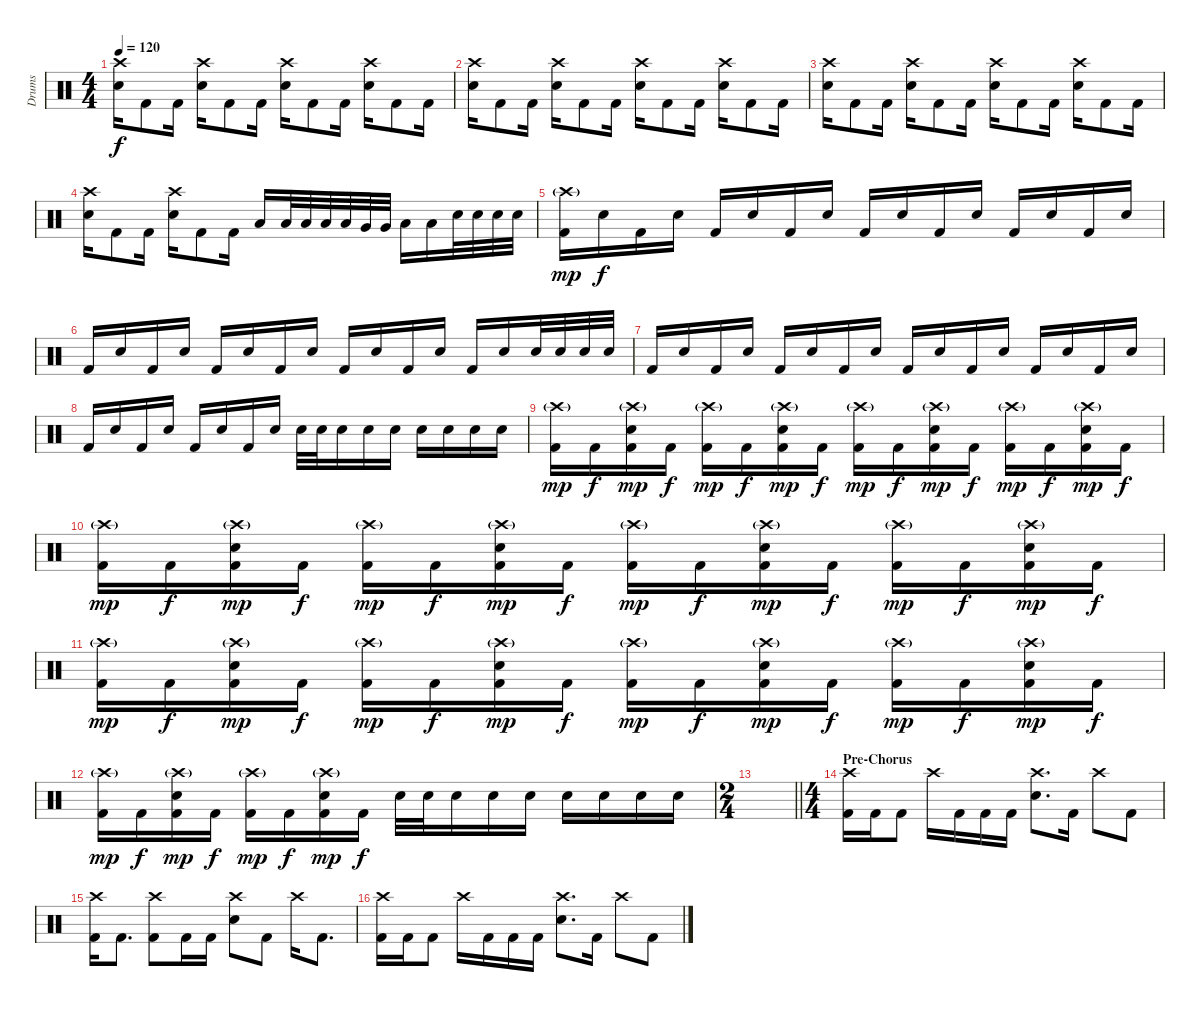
\track ("Drums" "Drums") {instrument percussion}
\staff {score}
\articulation defaults
\ts (4 4)
\tempo 120
\clef neutral
\ks c
("Crash high (hit)" "Electric Snare (hit)").16{dy f} "Kick (hit) 2".8 "Kick (hit) 2".16 ("Crash high (hit)" "Electric Snare (hit)").16 "Kick (hit) 2".8 "Kick (hit) 2".16 ("Crash high (hit)" "Electric Snare (hit)").16 "Kick (hit) 2".8 "Kick (hit) 2".16 ("Crash high (hit)" "Electric Snare (hit)").16 "Kick (hit) 2".8 "Kick (hit) 2".16 |
("Crash high (hit)" "Electric Snare (hit)").16 "Kick (hit) 2".8 "Kick (hit) 2".16 ("Crash high (hit)" "Electric Snare (hit)").16 "Kick (hit) 2".8 "Kick (hit) 2".16 ("Crash high (hit)" "Electric Snare (hit)").16 "Kick (hit) 2".8 "Kick (hit) 2".16 ("Crash high (hit)" "Electric Snare (hit)").16 "Kick (hit) 2".8 "Kick (hit) 2".16 |
("Crash high (hit)" "Electric Snare (hit)").16 "Kick (hit) 2".8 "Kick (hit) 2".16 ("Crash high (hit)" "Electric Snare (hit)").16 "Kick (hit) 2".8 "Kick (hit) 2".16 ("Crash high (hit)" "Electric Snare (hit)").16 "Kick (hit) 2".8 "Kick (hit) 2".16 ("Crash high (hit)" "Electric Snare (hit)").16 "Kick (hit) 2".8 "Kick (hit) 2".16 |
("Crash high (hit)" "Electric Snare (hit)").16 "Kick (hit) 2".8 "Kick (hit) 2".16 ("Crash high (hit)" "Electric Snare (hit)").16 "Kick (hit) 2".8 "Kick (hit) 2".16 "Low Tom (hit)".16 "Low Tom (hit)".32 "Low Tom (hit)".32 "Low Tom (hit)".32 "Low Tom (hit)".32 "Very Low Tom (hit)".32 "Very Low Tom (hit)".32 "Low Tom (hit)".16 "Low Tom (hit)".16 "Electric Snare (hit)".32 "Electric Snare (hit)".32 "Electric Snare (hit)".32 "Electric Snare (hit)".32 |
("Crash high (hit)"{g} "Kick (hit) 2").16{dy mp} "Electric Snare (hit)".16{dy f} "Kick (hit) 2".16 "Electric Snare (hit)".16 "Kick (hit) 2".16 "Electric Snare (hit)".16 "Kick (hit) 2".16 "Electric Snare (hit)".16 "Kick (hit) 2".16 "Electric Snare (hit)".16 "Kick (hit) 2".16 "Electric Snare (hit)".16 "Kick (hit) 2".16 "Electric Snare (hit)".16 "Kick (hit) 2".16 "Electric Snare (hit)".16 |
"Kick (hit) 2".16 "Electric Snare (hit)".16 "Kick (hit) 2".16 "Electric Snare (hit)".16 "Kick (hit) 2".16 "Electric Snare (hit)".16 "Kick (hit) 2".16 "Electric Snare (hit)".16 "Kick (hit) 2".16 "Electric Snare (hit)".16 "Kick (hit) 2".16 "Electric Snare (hit)".16 "Kick (hit) 2".16 "Electric Snare (hit)".16 "Electric Snare (hit)".32 "Electric Snare (hit)".32 "Electric Snare (hit)".32 "Electric Snare (hit)".32 |
"Kick (hit) 2".16 "Electric Snare (hit)".16 "Kick (hit) 2".16 "Electric Snare (hit)".16 "Kick (hit) 2".16 "Electric Snare (hit)".16 "Kick (hit) 2".16 "Electric Snare (hit)".16 "Kick (hit) 2".16 "Electric Snare (hit)".16 "Kick (hit) 2".16 "Electric Snare (hit)".16 "Kick (hit) 2".16 "Electric Snare (hit)".16 "Kick (hit) 2".16 "Electric Snare (hit)".16 |
"Kick (hit) 2".16 "Electric Snare (hit)".16 "Kick (hit) 2".16 "Electric Snare (hit)".16 "Kick (hit) 2".16 "Electric Snare (hit)".16 "Kick (hit) 2".16 "Electric Snare (hit)".16 "Electric Snare (hit)".32 "Electric Snare (hit)".32 "Electric Snare (hit)".16 "Electric Snare (hit)".16 "Electric Snare (hit)".16 "Electric Snare (hit)".16 "Electric Snare (hit)".16 "Electric Snare (hit)".16 "Electric Snare (hit)".16 |
("Crash high (hit)"{g} "Kick (hit) 2").16{dy mp} "Kick (hit) 2".16{dy f} ("Crash high (hit)"{g} "Electric Snare (hit)" "Kick (hit) 2").16{dy mp} "Kick (hit) 2".16{dy f} ("Crash high (hit)"{g} "Kick (hit) 2").16{dy mp} "Kick (hit) 2".16{dy f} ("Crash high (hit)"{g} "Electric Snare (hit)" "Kick (hit) 2").16{dy mp} "Kick (hit) 2".16{dy f} ("Crash high (hit)"{g} "Kick (hit) 2").16{dy mp} "Kick (hit) 2".16{dy f} ("Crash high (hit)"{g} "Electric Snare (hit)" "Kick (hit) 2").16{dy mp} "Kick (hit) 2".16{dy f} ("Crash high (hit)"{g} "Kick (hit) 2").16{dy mp} "Kick (hit) 2".16{dy f} ("Crash high (hit)"{g} "Electric Snare (hit)" "Kick (hit) 2").16{dy mp} "Kick (hit) 2".16{dy f} |
("Crash high (hit)"{g} "Kick (hit) 2").16{dy mp} "Kick (hit) 2".16{dy f} ("Crash high (hit)"{g} "Electric Snare (hit)" "Kick (hit) 2").16{dy mp} "Kick (hit) 2".16{dy f} ("Crash high (hit)"{g} "Kick (hit) 2").16{dy mp} "Kick (hit) 2".16{dy f} ("Crash high (hit)"{g} "Electric Snare (hit)" "Kick (hit) 2").16{dy mp} "Kick (hit) 2".16{dy f} ("Crash high (hit)"{g} "Kick (hit) 2").16{dy mp} "Kick (hit) 2".16{dy f} ("Crash high (hit)"{g} "Electric Snare (hit)" "Kick (hit) 2").16{dy mp} "Kick (hit) 2".16{dy f} ("Crash high (hit)"{g} "Kick (hit) 2").16{dy mp} "Kick (hit) 2".16{dy f} ("Crash high (hit)"{g} "Electric Snare (hit)" "Kick (hit) 2").16{dy mp} "Kick (hit) 2".16{dy f} |
("Crash high (hit)"{g} "Kick (hit) 2").16{dy mp} "Kick (hit) 2".16{dy f} ("Crash high (hit)"{g} "Electric Snare (hit)" "Kick (hit) 2").16{dy mp} "Kick (hit) 2".16{dy f} ("Crash high (hit)"{g} "Kick (hit) 2").16{dy mp} "Kick (hit) 2".16{dy f} ("Crash high (hit)"{g} "Electric Snare (hit)" "Kick (hit) 2").16{dy mp} "Kick (hit) 2".16{dy f} ("Crash high (hit)"{g} "Kick (hit) 2").16{dy mp} "Kick (hit) 2".16{dy f} ("Crash high (hit)"{g} "Electric Snare (hit)" "Kick (hit) 2").16{dy mp} "Kick (hit) 2".16{dy f} ("Crash high (hit)"{g} "Kick (hit) 2").16{dy mp} "Kick (hit) 2".16{dy f} ("Crash high (hit)"{g} "Electric Snare (hit)" "Kick (hit) 2").16{dy mp} "Kick (hit) 2".16{dy f} |
("Crash high (hit)"{g} "Kick (hit) 2").16{dy mp} "Kick (hit) 2".16{dy f} ("Crash high (hit)"{g} "Electric Snare (hit)" "Kick (hit) 2").16{dy mp} "Kick (hit) 2".16{dy f} ("Crash high (hit)"{g} "Kick (hit) 2").16{dy mp} "Kick (hit) 2".16{dy f} ("Crash high (hit)"{g} "Electric Snare (hit)" "Kick (hit) 2").16{dy mp} "Kick (hit) 2".16{dy f} "Electric Snare (hit)".32 "Electric Snare (hit)".32 "Electric Snare (hit)".16 "Electric Snare (hit)".16 "Electric Snare (hit)".16 "Electric Snare (hit)".16 "Electric Snare (hit)".16 "Electric Snare (hit)".16 "Electric Snare (hit)".16 |
\ts (2 4)
\barLineRight lightlight
|
\ts (4 4)
\section ("" "Pre-Chorus")
("Crash high (hit)" "Kick (hit) 2").16 "Kick (hit) 2".16 "Kick (hit) 2".8 "Crash high (hit)".16 "Kick (hit) 2".16 "Kick (hit) 2".16 "Kick (hit) 2".16 ("Crash high (hit)" "Electric Snare (hit)").8{d} "Kick (hit) 2".16 "Crash high (hit)".8 "Kick (hit) 2".8 |
("Crash high (hit)" "Kick (hit) 2").16 "Kick (hit) 2".8{d} ("Crash high (hit)" "Kick (hit) 2").8 "Kick (hit) 2".16 "Kick (hit) 2".16 ("Crash high (hit)" "Electric Snare (hit)").8 "Kick (hit) 2".8 "Crash high (hit)".16 "Kick (hit) 2".8{d} |
("Crash high (hit)" "Kick (hit) 2").16 "Kick (hit) 2".16 "Kick (hit) 2".8 "Crash high (hit)".16 "Kick (hit) 2".16 "Kick (hit) 2".16 "Kick (hit) 2".16 ("Crash high (hit)" "Electric Snare (hit)").8{d} "Kick (hit) 2".16 "Crash high (hit)".8 "Kick (hit) 2".8
